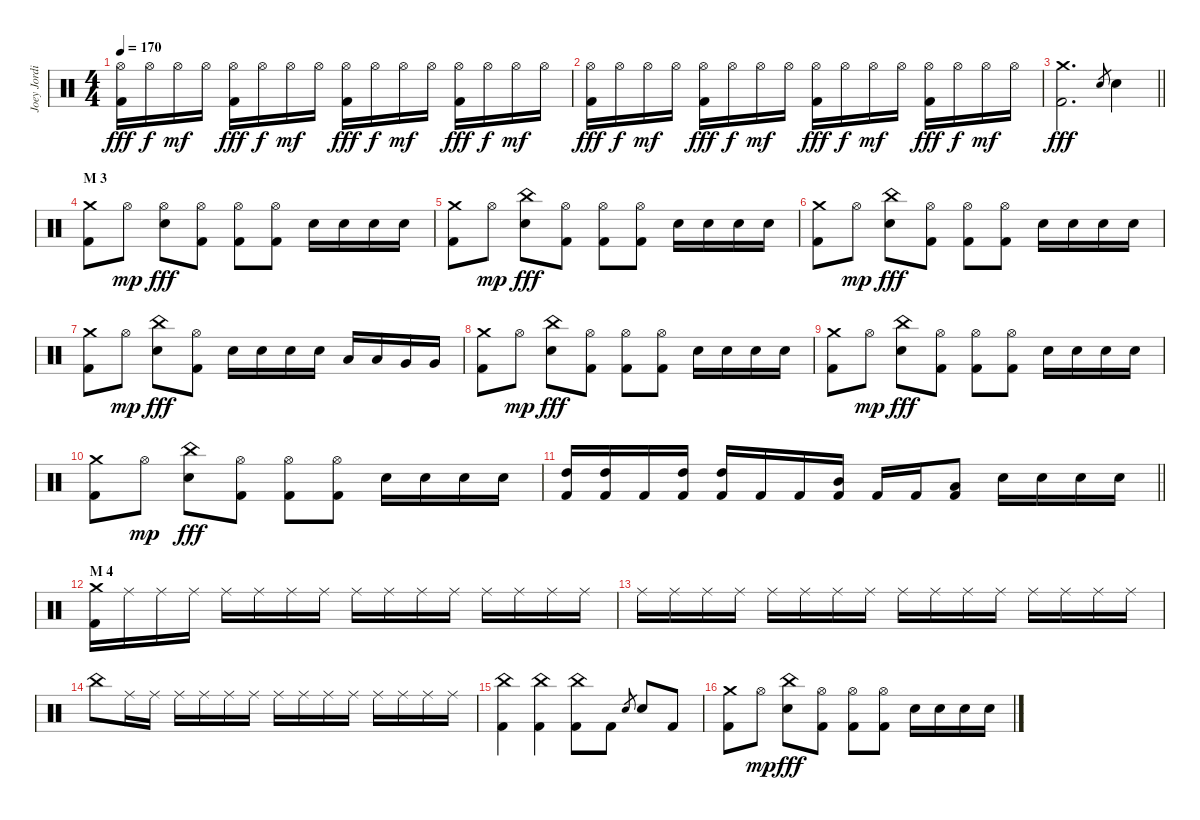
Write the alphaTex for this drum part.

\track ("Joey Jordison" "Joey Jordi") {instrument percussion}
\staff {score}
\articulation defaults
\ts (4 4)
\tempo 170
\clef neutral
\ks c
("Hi-Hat (open)" "Kick (hit) 2").16{dy fff} "Hi-Hat (open)".16{dy f} "Hi-Hat (open)".16{dy mf} "Hi-Hat (open)".16 ("Hi-Hat (open)" "Kick (hit) 2").16{dy fff} "Hi-Hat (open)".16{dy f} "Hi-Hat (open)".16{dy mf} "Hi-Hat (open)".16 ("Hi-Hat (open)" "Kick (hit) 2").16{dy fff} "Hi-Hat (open)".16{dy f} "Hi-Hat (open)".16{dy mf} "Hi-Hat (open)".16 ("Hi-Hat (open)" "Kick (hit) 2").16{dy fff} "Hi-Hat (open)".16{dy f} "Hi-Hat (open)".16{dy mf} "Hi-Hat (open)".16 |
("Hi-Hat (open)" "Kick (hit) 2").16{dy fff} "Hi-Hat (open)".16{dy f} "Hi-Hat (open)".16{dy mf} "Hi-Hat (open)".16 ("Hi-Hat (open)" "Kick (hit) 2").16{dy fff} "Hi-Hat (open)".16{dy f} "Hi-Hat (open)".16{dy mf} "Hi-Hat (open)".16 ("Hi-Hat (open)" "Kick (hit) 2").16{dy fff} "Hi-Hat (open)".16{dy f} "Hi-Hat (open)".16{dy mf} "Hi-Hat (open)".16 ("Hi-Hat (open)" "Kick (hit) 2").16{dy fff} "Hi-Hat (open)".16{dy f} "Hi-Hat (open)".16{dy mf} "Hi-Hat (open)".16 |
\barLineRight lightlight
("Crash medium (hit)" "Kick (hit) 2").2{d dy fff} "Electric Snare (hit)".8{gr} "Electric Snare (hit)".4 |
\section ("" "M 3")
("Crash medium (hit)" "Kick (hit) 2").8 "Hi-Hat (open)".8{dy mp} ("Hi-Hat (open)" "Electric Snare (hit)").8{dy fff} ("Hi-Hat (open)" "Kick (hit) 2").8 ("Hi-Hat (open)" "Kick (hit) 2").8 ("Hi-Hat (open)" "Kick (hit) 2").8 "Electric Snare (hit)".16 "Electric Snare (hit)".16 "Electric Snare (hit)".16 "Electric Snare (hit)".16 |
("Crash medium (hit)" "Kick (hit) 2").8 "Hi-Hat (open)".8{dy mp} ("China (hit)" "Electric Snare (hit)").8{dy fff} ("Hi-Hat (open)" "Kick (hit) 2").8 ("Hi-Hat (open)" "Kick (hit) 2").8 ("Hi-Hat (open)" "Kick (hit) 2").8 "Electric Snare (hit)".16 "Electric Snare (hit)".16 "Electric Snare (hit)".16 "Electric Snare (hit)".16 |
("Crash medium (hit)" "Kick (hit) 2").8 "Hi-Hat (open)".8{dy mp} ("China (hit)" "Electric Snare (hit)").8{dy fff} ("Hi-Hat (open)" "Kick (hit) 2").8 ("Hi-Hat (open)" "Kick (hit) 2").8 ("Hi-Hat (open)" "Kick (hit) 2").8 "Electric Snare (hit)".16 "Electric Snare (hit)".16 "Electric Snare (hit)".16 "Electric Snare (hit)".16 |
("Crash medium (hit)" "Kick (hit) 2").8 "Hi-Hat (open)".8{dy mp} ("China (hit)" "Electric Snare (hit)").8{dy fff} ("Hi-Hat (open)" "Kick (hit) 2").8 "Electric Snare (hit)".16 "Electric Snare (hit)".16 "Electric Snare (hit)".16 "Electric Snare (hit)".16 "Low Tom (hit)".16 "Low Tom (hit)".16 "Very Low Tom (hit)".16 "Very Low Tom (hit)".16 |
("Crash medium (hit)" "Kick (hit) 2").8 "Hi-Hat (open)".8{dy mp} ("China (hit)" "Electric Snare (hit)").8{dy fff} ("Hi-Hat (open)" "Kick (hit) 2").8 ("Hi-Hat (open)" "Kick (hit) 2").8 ("Hi-Hat (open)" "Kick (hit) 2").8 "Electric Snare (hit)".16 "Electric Snare (hit)".16 "Electric Snare (hit)".16 "Electric Snare (hit)".16 |
("Crash medium (hit)" "Kick (hit) 2").8 "Hi-Hat (open)".8{dy mp} ("China (hit)" "Electric Snare (hit)").8{dy fff} ("Hi-Hat (open)" "Kick (hit) 2").8 ("Hi-Hat (open)" "Kick (hit) 2").8 ("Hi-Hat (open)" "Kick (hit) 2").8 "Electric Snare (hit)".16 "Electric Snare (hit)".16 "Electric Snare (hit)".16 "Electric Snare (hit)".16 |
("Crash medium (hit)" "Kick (hit) 2").8 "Hi-Hat (open)".8{dy mp} ("China (hit)" "Electric Snare (hit)").8{dy fff} ("Hi-Hat (open)" "Kick (hit) 2").8 ("Hi-Hat (open)" "Kick (hit) 2").8 ("Hi-Hat (open)" "Kick (hit) 2").8 "Electric Snare (hit)".16 "Electric Snare (hit)".16 "Electric Snare (hit)".16 "Electric Snare (hit)".16 |
\barLineRight lightlight
("High Tom (hit)" "Kick (hit) 2").16 ("High Tom (hit)" "Kick (hit) 2").16 "Kick (hit) 2".16 ("High Tom (hit)" "Kick (hit) 2").16 ("High Tom (hit)" "Kick (hit) 2").16 "Kick (hit) 2".16 "Kick (hit) 2".16 ("Mid Tom (hit)" "Kick (hit) 2").16 "Kick (hit) 2".16 "Kick (hit) 2".16 ("Low Tom (hit)" "Kick (hit) 2").8 "Electric Snare (hit)".16 "Electric Snare (hit)".16 "Electric Snare (hit)".16 "Electric Snare (hit)".16 |
\section ("" "M 4")
("Crash medium (hit)" "Kick (hit) 2").16 "Ride (middle)".16 "Ride (middle)".16 "Ride (middle)".16 "Ride (middle)".16 "Ride (middle)".16 "Ride (middle)".16 "Ride (middle)".16 "Ride (middle)".16 "Ride (middle)".16 "Ride (middle)".16 "Ride (middle)".16 "Ride (middle)".16 "Ride (middle)".16 "Ride (middle)".16 "Ride (middle)".16 |
"Ride (middle)".16 "Ride (middle)".16 "Ride (middle)".16 "Ride (middle)".16 "Ride (middle)".16 "Ride (middle)".16 "Ride (middle)".16 "Ride (middle)".16 "Ride (middle)".16 "Ride (middle)".16 "Ride (middle)".16 "Ride (middle)".16 "Ride (middle)".16 "Ride (middle)".16 "Ride (middle)".16 "Ride (middle)".16 |
"China (hit)".8 "Ride (middle)".16 "Ride (middle)".16 "Ride (middle)".16 "Ride (middle)".16 "Ride (middle)".16 "Ride (middle)".16 "Ride (middle)".16 "Ride (middle)".16 "Ride (middle)".16 "Ride (middle)".16 "Ride (middle)".16 "Ride (middle)".16 "Ride (middle)".16 "Ride (middle)".16 |
("China (hit)" "Kick (hit) 2").4 ("China (hit)" "Kick (hit) 2").4 ("China (hit)" "Kick (hit) 2").8 "Kick (hit) 2".8 "Electric Snare (hit)".8{gr} "Electric Snare (hit)".8 "Kick (hit) 2".8 |
("Crash medium (hit)" "Kick (hit) 2").8 "Hi-Hat (open)".8{dy mp} ("China (hit)" "Electric Snare (hit)").8{dy fff} ("Hi-Hat (open)" "Kick (hit) 2").8 ("Hi-Hat (open)" "Kick (hit) 2").8 ("Hi-Hat (open)" "Kick (hit) 2").8 "Electric Snare (hit)".16 "Electric Snare (hit)".16 "Electric Snare (hit)".16 "Electric Snare (hit)".16
